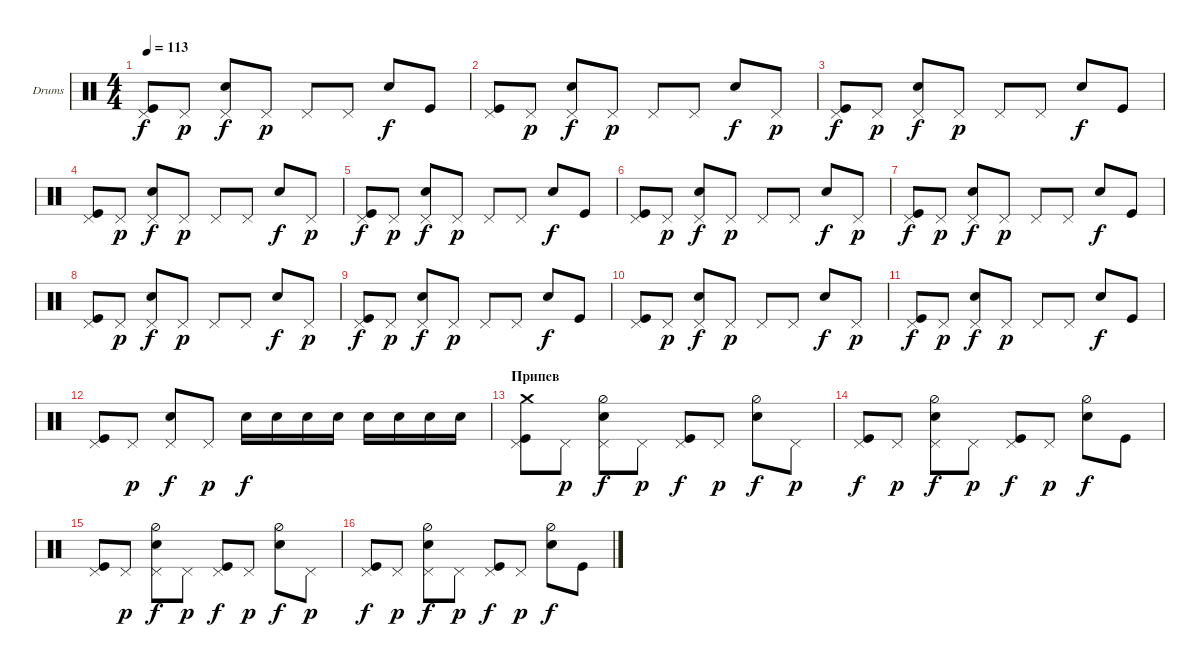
\defaultSystemsLayout 4
\bracketExtendMode groupsimilarinstruments
\firstSystemTrackNameOrientation horizontal
\otherSystemsTrackNameOrientation horizontal
\track ("Е. Кулаков" "Drums") {instrument percussion}
\staff {score}
\articulation defaults
\ts (4 4)
\tempo 113
\clef neutral
\ks c
("Kick (hit)" "Pedal Hi-Hat (hit)").8{dy f} "Pedal Hi-Hat (hit)".8{dy p} ("Snare (hit) 2" "Pedal Hi-Hat (hit)").8{dy f} "Pedal Hi-Hat (hit)".8{dy p} "Pedal Hi-Hat (hit)".8 "Pedal Hi-Hat (hit)".8 "Snare (hit) 2".8{dy f} "Kick (hit)".8 |
("Kick (hit)" "Pedal Hi-Hat (hit)").8 "Pedal Hi-Hat (hit)".8{dy p} ("Snare (hit) 2" "Pedal Hi-Hat (hit)").8{dy f} "Pedal Hi-Hat (hit)".8{dy p} "Pedal Hi-Hat (hit)".8 "Pedal Hi-Hat (hit)".8 "Snare (hit) 2".8{dy f} "Pedal Hi-Hat (hit)".8{dy p} |
("Kick (hit)" "Pedal Hi-Hat (hit)").8{dy f} "Pedal Hi-Hat (hit)".8{dy p} ("Snare (hit) 2" "Pedal Hi-Hat (hit)").8{dy f} "Pedal Hi-Hat (hit)".8{dy p} "Pedal Hi-Hat (hit)".8 "Pedal Hi-Hat (hit)".8 "Snare (hit) 2".8{dy f} "Kick (hit)".8 |
("Kick (hit)" "Pedal Hi-Hat (hit)").8 "Pedal Hi-Hat (hit)".8{dy p} ("Snare (hit) 2" "Pedal Hi-Hat (hit)").8{dy f} "Pedal Hi-Hat (hit)".8{dy p} "Pedal Hi-Hat (hit)".8 "Pedal Hi-Hat (hit)".8 "Snare (hit) 2".8{dy f} "Pedal Hi-Hat (hit)".8{dy p} |
("Kick (hit)" "Pedal Hi-Hat (hit)").8{dy f} "Pedal Hi-Hat (hit)".8{dy p} ("Snare (hit) 2" "Pedal Hi-Hat (hit)").8{dy f} "Pedal Hi-Hat (hit)".8{dy p} "Pedal Hi-Hat (hit)".8 "Pedal Hi-Hat (hit)".8 "Snare (hit) 2".8{dy f} "Kick (hit)".8 |
("Kick (hit)" "Pedal Hi-Hat (hit)").8 "Pedal Hi-Hat (hit)".8{dy p} ("Snare (hit) 2" "Pedal Hi-Hat (hit)").8{dy f} "Pedal Hi-Hat (hit)".8{dy p} "Pedal Hi-Hat (hit)".8 "Pedal Hi-Hat (hit)".8 "Snare (hit) 2".8{dy f} "Pedal Hi-Hat (hit)".8{dy p} |
("Kick (hit)" "Pedal Hi-Hat (hit)").8{dy f} "Pedal Hi-Hat (hit)".8{dy p} ("Snare (hit) 2" "Pedal Hi-Hat (hit)").8{dy f} "Pedal Hi-Hat (hit)".8{dy p} "Pedal Hi-Hat (hit)".8 "Pedal Hi-Hat (hit)".8 "Snare (hit) 2".8{dy f} "Kick (hit)".8 |
("Kick (hit)" "Pedal Hi-Hat (hit)").8 "Pedal Hi-Hat (hit)".8{dy p} ("Snare (hit) 2" "Pedal Hi-Hat (hit)").8{dy f} "Pedal Hi-Hat (hit)".8{dy p} "Pedal Hi-Hat (hit)".8 "Pedal Hi-Hat (hit)".8 "Snare (hit) 2".8{dy f} "Pedal Hi-Hat (hit)".8{dy p} |
("Kick (hit)" "Pedal Hi-Hat (hit)").8{dy f} "Pedal Hi-Hat (hit)".8{dy p} ("Snare (hit) 2" "Pedal Hi-Hat (hit)").8{dy f} "Pedal Hi-Hat (hit)".8{dy p} "Pedal Hi-Hat (hit)".8 "Pedal Hi-Hat (hit)".8 "Snare (hit) 2".8{dy f} "Kick (hit)".8 |
("Kick (hit)" "Pedal Hi-Hat (hit)").8 "Pedal Hi-Hat (hit)".8{dy p} ("Snare (hit) 2" "Pedal Hi-Hat (hit)").8{dy f} "Pedal Hi-Hat (hit)".8{dy p} "Pedal Hi-Hat (hit)".8 "Pedal Hi-Hat (hit)".8 "Snare (hit) 2".8{dy f} "Pedal Hi-Hat (hit)".8{dy p} |
("Kick (hit)" "Pedal Hi-Hat (hit)").8{dy f} "Pedal Hi-Hat (hit)".8{dy p} ("Snare (hit) 2" "Pedal Hi-Hat (hit)").8{dy f} "Pedal Hi-Hat (hit)".8{dy p} "Pedal Hi-Hat (hit)".8 "Pedal Hi-Hat (hit)".8 "Snare (hit) 2".8{dy f} "Kick (hit)".8 |
("Kick (hit)" "Pedal Hi-Hat (hit)").8 "Pedal Hi-Hat (hit)".8{dy p} ("Snare (hit) 2" "Pedal Hi-Hat (hit)").8{dy f} "Pedal Hi-Hat (hit)".8{dy p} "Snare (hit) 2".16{dy f} "Snare (hit) 2".16 "Snare (hit) 2".16 "Snare (hit) 2".16 "Snare (hit) 2".16 "Snare (hit) 2".16 "Snare (hit) 2".16 "Snare (hit) 2".16 |
\section ("" "Припев")
("Kick (hit)" "Pedal Hi-Hat (hit)" "Crash medium (hit)").8 "Pedal Hi-Hat (hit)".8{dy p} ("Snare (hit) 2" "Pedal Hi-Hat (hit)" "Hi-Hat (half)").8{dy f} "Pedal Hi-Hat (hit)".8{dy p} ("Pedal Hi-Hat (hit)" "Kick (hit)").8{dy f} "Pedal Hi-Hat (hit)".8{dy p} ("Snare (hit) 2" "Hi-Hat (half)").8{dy f} "Pedal Hi-Hat (hit)".8{dy p} |
("Kick (hit)" "Pedal Hi-Hat (hit)").8{dy f} "Pedal Hi-Hat (hit)".8{dy p} ("Snare (hit) 2" "Pedal Hi-Hat (hit)" "Hi-Hat (half)").8{dy f} "Pedal Hi-Hat (hit)".8{dy p} ("Pedal Hi-Hat (hit)" "Kick (hit)").8{dy f} "Pedal Hi-Hat (hit)".8{dy p} ("Snare (hit) 2" "Hi-Hat (half)").8{dy f} "Kick (hit)".8 |
("Kick (hit)" "Pedal Hi-Hat (hit)").8 "Pedal Hi-Hat (hit)".8{dy p} ("Snare (hit) 2" "Pedal Hi-Hat (hit)" "Hi-Hat (half)").8{dy f} "Pedal Hi-Hat (hit)".8{dy p} ("Pedal Hi-Hat (hit)" "Kick (hit)").8{dy f} "Pedal Hi-Hat (hit)".8{dy p} ("Snare (hit) 2" "Hi-Hat (half)").8{dy f} "Pedal Hi-Hat (hit)".8{dy p} |
("Kick (hit)" "Pedal Hi-Hat (hit)").8{dy f} "Pedal Hi-Hat (hit)".8{dy p} ("Snare (hit) 2" "Pedal Hi-Hat (hit)" "Hi-Hat (half)").8{dy f} "Pedal Hi-Hat (hit)".8{dy p} ("Pedal Hi-Hat (hit)" "Kick (hit)").8{dy f} "Pedal Hi-Hat (hit)".8{dy p} ("Snare (hit) 2" "Hi-Hat (half)").8{dy f} "Kick (hit)".8
